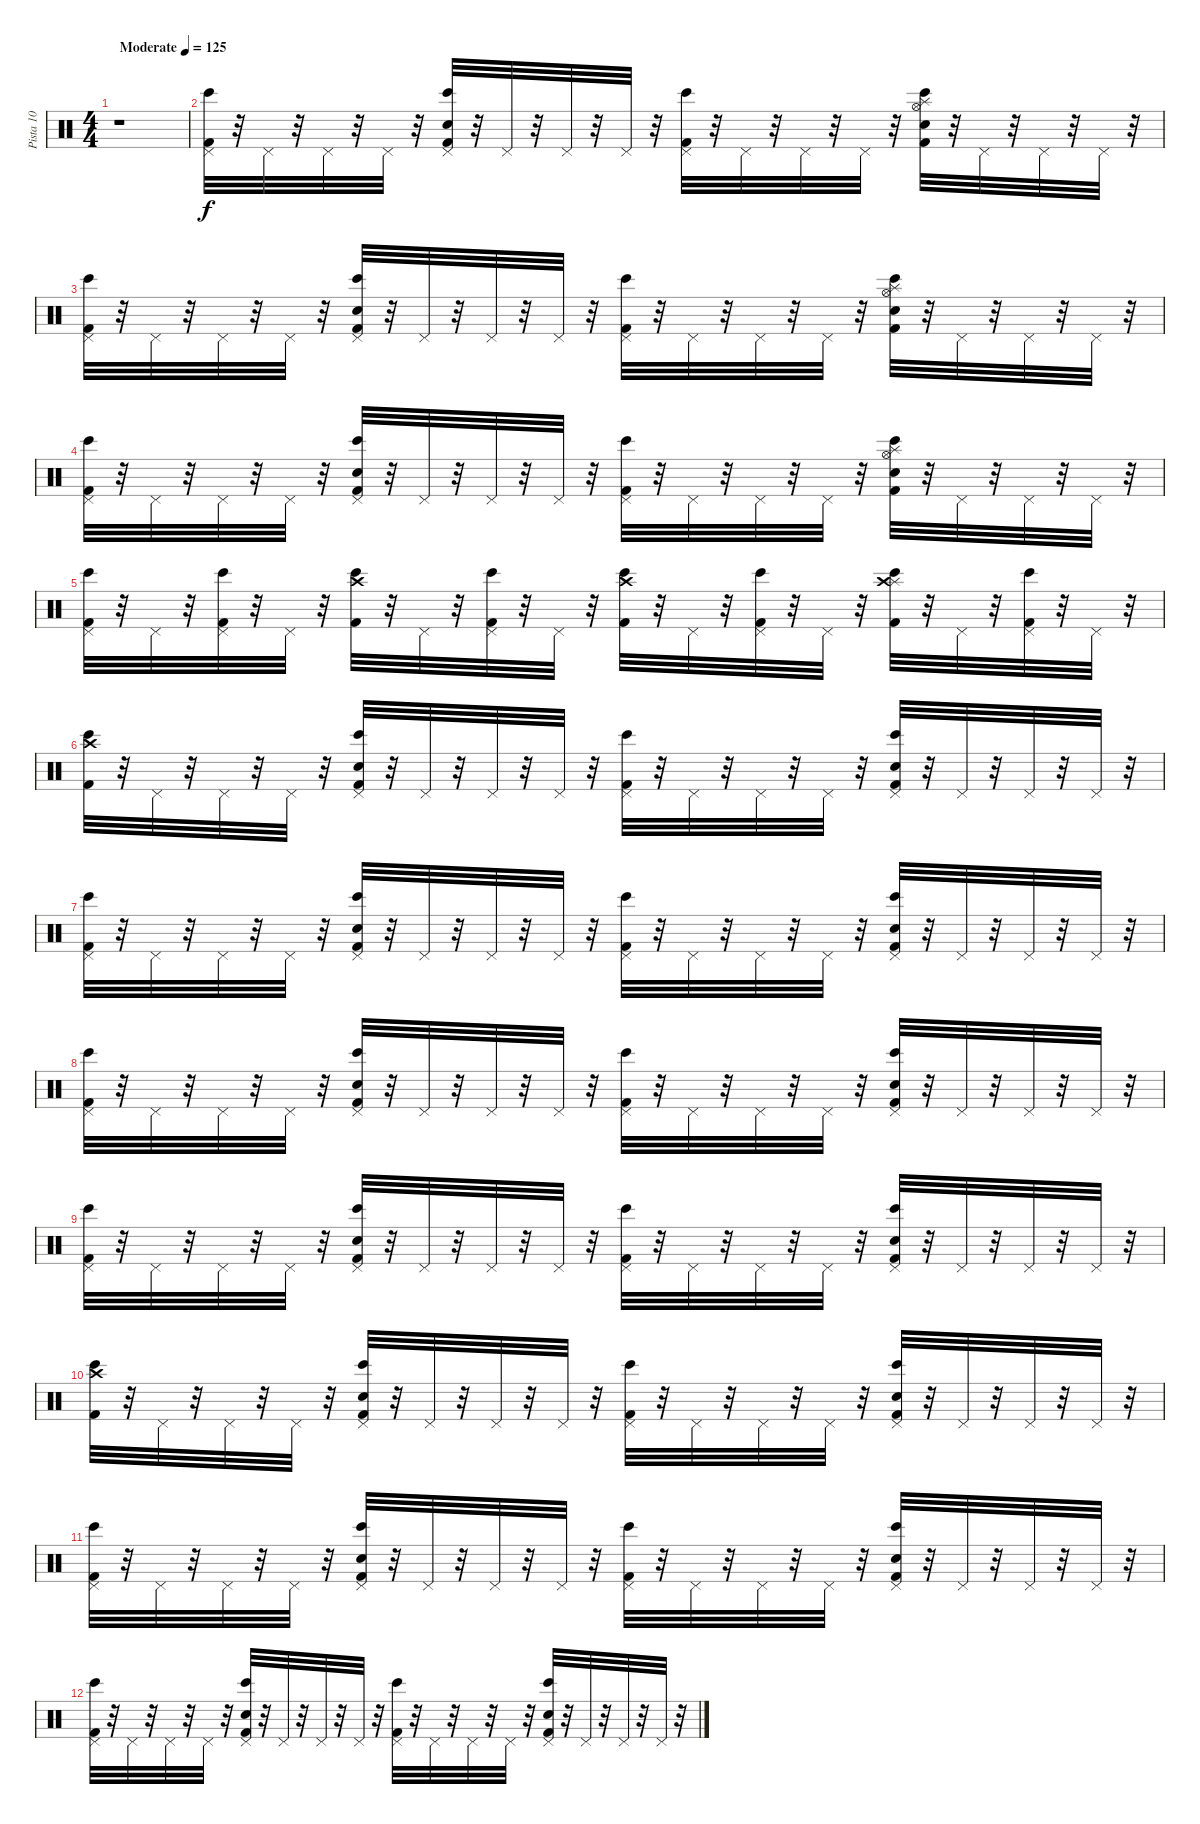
\track ("Pista 10" "Pista 10") {instrument percussion}
\staff {score}
\articulation defaults
\ts (4 4)
\tempo (125 "Moderate")
\clef neutral
\ks c
r.1{dy f} |
("Kick (hit) 2" "Pedal Hi-Hat (hit)" "Bongo High (hit)").32 r.32 "Pedal Hi-Hat (hit)".32 r.32 "Pedal Hi-Hat (hit)".32 r.32 "Pedal Hi-Hat (hit)".32 r.32 ("Snare (hit) 2" "Kick (hit) 2" "Pedal Hi-Hat (hit)" "Bongo High (hit)").32 r.32 "Pedal Hi-Hat (hit)".32 r.32 "Pedal Hi-Hat (hit)".32 r.32 "Pedal Hi-Hat (hit)".32 r.32 ("Kick (hit) 2" "Bongo High (hit)" "Pedal Hi-Hat (hit)").32 r.32 "Pedal Hi-Hat (hit)".32 r.32 "Pedal Hi-Hat (hit)".32 r.32 "Pedal Hi-Hat (hit)".32 r.32 ("Snare (hit) 2" "Splash (hit)" "Hi-Hat (open)" "Kick (hit) 2" "Bongo High (hit)").32 r.32 "Pedal Hi-Hat (hit)".32 r.32 "Pedal Hi-Hat (hit)".32 r.32 "Pedal Hi-Hat (hit)".32 r.32 |
("Kick (hit) 2" "Pedal Hi-Hat (hit)" "Bongo High (hit)").32 r.32 "Pedal Hi-Hat (hit)".32 r.32 "Pedal Hi-Hat (hit)".32 r.32 "Pedal Hi-Hat (hit)".32 r.32 ("Snare (hit) 2" "Kick (hit) 2" "Pedal Hi-Hat (hit)" "Bongo High (hit)").32 r.32 "Pedal Hi-Hat (hit)".32 r.32 "Pedal Hi-Hat (hit)".32 r.32 "Pedal Hi-Hat (hit)".32 r.32 ("Kick (hit) 2" "Bongo High (hit)" "Pedal Hi-Hat (hit)").32 r.32 "Pedal Hi-Hat (hit)".32 r.32 "Pedal Hi-Hat (hit)".32 r.32 "Pedal Hi-Hat (hit)".32 r.32 ("Snare (hit) 2" "Splash (hit)" "Hi-Hat (open)" "Kick (hit) 2" "Bongo High (hit)").32 r.32 "Pedal Hi-Hat (hit)".32 r.32 "Pedal Hi-Hat (hit)".32 r.32 "Pedal Hi-Hat (hit)".32 r.32 |
("Kick (hit) 2" "Pedal Hi-Hat (hit)" "Bongo High (hit)").32 r.32 "Pedal Hi-Hat (hit)".32 r.32 "Pedal Hi-Hat (hit)".32 r.32 "Pedal Hi-Hat (hit)".32 r.32 ("Kick (hit) 2" "Pedal Hi-Hat (hit)" "Bongo High (hit)" "Snare (hit) 2").32 r.32 "Pedal Hi-Hat (hit)".32 r.32 "Pedal Hi-Hat (hit)".32 r.32 "Pedal Hi-Hat (hit)".32 r.32 ("Kick (hit) 2" "Bongo High (hit)" "Pedal Hi-Hat (hit)").32 r.32 "Pedal Hi-Hat (hit)".32 r.32 "Pedal Hi-Hat (hit)".32 r.32 "Pedal Hi-Hat (hit)".32 r.32 ("Snare (hit) 2" "Splash (hit)" "Hi-Hat (open)" "Kick (hit) 2" "Bongo High (hit)").32 r.32 "Pedal Hi-Hat (hit)".32 r.32 "Pedal Hi-Hat (hit)".32 r.32 "Pedal Hi-Hat (hit)".32 r.32 |
("Kick (hit) 2" "Pedal Hi-Hat (hit)" "Bongo High (hit)").32 r.32 "Pedal Hi-Hat (hit)".32 r.32 ("Pedal Hi-Hat (hit)" "Bongo High (hit)" "Kick (hit) 2").32 r.32 "Pedal Hi-Hat (hit)".32 r.32 ("Kick (hit) 2" "Crash high (hit)" "Bongo High (hit)").32 r.32 "Pedal Hi-Hat (hit)".32 r.32 ("Bongo High (hit)" "Kick (hit) 2" "Pedal Hi-Hat (hit)").32 r.32 "Pedal Hi-Hat (hit)".32 r.32 ("Bongo High (hit)" "Kick (hit) 2" "Crash high (hit)").32 r.32 "Pedal Hi-Hat (hit)".32 r.32 ("Pedal Hi-Hat (hit)" "Bongo High (hit)" "Kick (hit) 2").32 r.32 "Pedal Hi-Hat (hit)".32 r.32 ("Splash (hit)" "Kick (hit) 2" "Bongo High (hit)" "Crash high (hit)").32 r.32 "Pedal Hi-Hat (hit)".32 r.32 ("Kick (hit) 2" "Pedal Hi-Hat (hit)" "Bongo High (hit)").32 r.32 "Pedal Hi-Hat (hit)".32 r.32 |
("Crash high (hit)" "Kick (hit) 2" "Bongo High (hit)").32 r.32 "Pedal Hi-Hat (hit)".32 r.32 "Pedal Hi-Hat (hit)".32 r.32 "Pedal Hi-Hat (hit)".32 r.32 ("Snare (hit) 2" "Kick (hit) 2" "Pedal Hi-Hat (hit)" "Bongo High (hit)").32 r.32 "Pedal Hi-Hat (hit)".32 r.32 "Pedal Hi-Hat (hit)".32 r.32 "Pedal Hi-Hat (hit)".32 r.32 ("Kick (hit) 2" "Bongo High (hit)" "Pedal Hi-Hat (hit)").32 r.32 "Pedal Hi-Hat (hit)".32 r.32 "Pedal Hi-Hat (hit)".32 r.32 "Pedal Hi-Hat (hit)".32 r.32 ("Snare (hit) 2" "Pedal Hi-Hat (hit)" "Kick (hit) 2" "Bongo High (hit)").32 r.32 "Pedal Hi-Hat (hit)".32 r.32 "Pedal Hi-Hat (hit)".32 r.32 "Pedal Hi-Hat (hit)".32 r.32 |
("Kick (hit) 2" "Pedal Hi-Hat (hit)" "Bongo High (hit)").32 r.32 "Pedal Hi-Hat (hit)".32 r.32 "Pedal Hi-Hat (hit)".32 r.32 "Pedal Hi-Hat (hit)".32 r.32 ("Snare (hit) 2" "Kick (hit) 2" "Pedal Hi-Hat (hit)" "Bongo High (hit)").32 r.32 "Pedal Hi-Hat (hit)".32 r.32 "Pedal Hi-Hat (hit)".32 r.32 "Pedal Hi-Hat (hit)".32 r.32 ("Kick (hit) 2" "Bongo High (hit)" "Pedal Hi-Hat (hit)").32 r.32 "Pedal Hi-Hat (hit)".32 r.32 "Pedal Hi-Hat (hit)".32 r.32 "Pedal Hi-Hat (hit)".32 r.32 ("Snare (hit) 2" "Pedal Hi-Hat (hit)" "Kick (hit) 2" "Bongo High (hit)").32 r.32 "Pedal Hi-Hat (hit)".32 r.32 "Pedal Hi-Hat (hit)".32 r.32 "Pedal Hi-Hat (hit)".32 r.32 |
("Kick (hit) 2" "Pedal Hi-Hat (hit)" "Bongo High (hit)").32 r.32 "Pedal Hi-Hat (hit)".32 r.32 "Pedal Hi-Hat (hit)".32 r.32 "Pedal Hi-Hat (hit)".32 r.32 ("Snare (hit) 2" "Kick (hit) 2" "Pedal Hi-Hat (hit)" "Bongo High (hit)").32 r.32 "Pedal Hi-Hat (hit)".32 r.32 "Pedal Hi-Hat (hit)".32 r.32 "Pedal Hi-Hat (hit)".32 r.32 ("Kick (hit) 2" "Bongo High (hit)" "Pedal Hi-Hat (hit)").32 r.32 "Pedal Hi-Hat (hit)".32 r.32 "Pedal Hi-Hat (hit)".32 r.32 "Pedal Hi-Hat (hit)".32 r.32 ("Snare (hit) 2" "Pedal Hi-Hat (hit)" "Kick (hit) 2" "Bongo High (hit)").32 r.32 "Pedal Hi-Hat (hit)".32 r.32 "Pedal Hi-Hat (hit)".32 r.32 "Pedal Hi-Hat (hit)".32 r.32 |
("Kick (hit) 2" "Pedal Hi-Hat (hit)" "Bongo High (hit)").32 r.32 "Pedal Hi-Hat (hit)".32 r.32 "Pedal Hi-Hat (hit)".32 r.32 "Pedal Hi-Hat (hit)".32 r.32 ("Snare (hit) 2" "Kick (hit) 2" "Pedal Hi-Hat (hit)" "Bongo High (hit)").32 r.32 "Pedal Hi-Hat (hit)".32 r.32 "Pedal Hi-Hat (hit)".32 r.32 "Pedal Hi-Hat (hit)".32 r.32 ("Kick (hit) 2" "Bongo High (hit)" "Pedal Hi-Hat (hit)").32 r.32 "Pedal Hi-Hat (hit)".32 r.32 "Pedal Hi-Hat (hit)".32 r.32 "Pedal Hi-Hat (hit)".32 r.32 ("Snare (hit) 2" "Pedal Hi-Hat (hit)" "Kick (hit) 2" "Bongo High (hit)").32 r.32 "Pedal Hi-Hat (hit)".32 r.32 "Pedal Hi-Hat (hit)".32 r.32 "Pedal Hi-Hat (hit)".32 r.32 |
("Crash high (hit)" "Kick (hit) 2" "Bongo High (hit)").32 r.32 "Pedal Hi-Hat (hit)".32 r.32 "Pedal Hi-Hat (hit)".32 r.32 "Pedal Hi-Hat (hit)".32 r.32 ("Snare (hit) 2" "Kick (hit) 2" "Pedal Hi-Hat (hit)" "Bongo High (hit)").32 r.32 "Pedal Hi-Hat (hit)".32 r.32 "Pedal Hi-Hat (hit)".32 r.32 "Pedal Hi-Hat (hit)".32 r.32 ("Kick (hit) 2" "Bongo High (hit)" "Pedal Hi-Hat (hit)").32 r.32 "Pedal Hi-Hat (hit)".32 r.32 "Pedal Hi-Hat (hit)".32 r.32 "Pedal Hi-Hat (hit)".32 r.32 ("Snare (hit) 2" "Pedal Hi-Hat (hit)" "Kick (hit) 2" "Bongo High (hit)").32 r.32 "Pedal Hi-Hat (hit)".32 r.32 "Pedal Hi-Hat (hit)".32 r.32 "Pedal Hi-Hat (hit)".32 r.32 |
("Kick (hit) 2" "Pedal Hi-Hat (hit)" "Bongo High (hit)").32 r.32 "Pedal Hi-Hat (hit)".32 r.32 "Pedal Hi-Hat (hit)".32 r.32 "Pedal Hi-Hat (hit)".32 r.32 ("Snare (hit) 2" "Kick (hit) 2" "Pedal Hi-Hat (hit)" "Bongo High (hit)").32 r.32 "Pedal Hi-Hat (hit)".32 r.32 "Pedal Hi-Hat (hit)".32 r.32 "Pedal Hi-Hat (hit)".32 r.32 ("Kick (hit) 2" "Bongo High (hit)" "Pedal Hi-Hat (hit)").32 r.32 "Pedal Hi-Hat (hit)".32 r.32 "Pedal Hi-Hat (hit)".32 r.32 "Pedal Hi-Hat (hit)".32 r.32 ("Snare (hit) 2" "Pedal Hi-Hat (hit)" "Kick (hit) 2" "Bongo High (hit)").32 r.32 "Pedal Hi-Hat (hit)".32 r.32 "Pedal Hi-Hat (hit)".32 r.32 "Pedal Hi-Hat (hit)".32 r.32 |
("Kick (hit) 2" "Pedal Hi-Hat (hit)" "Bongo High (hit)").32 r.32 "Pedal Hi-Hat (hit)".32 r.32 "Pedal Hi-Hat (hit)".32 r.32 "Pedal Hi-Hat (hit)".32 r.32 ("Snare (hit) 2" "Kick (hit) 2" "Pedal Hi-Hat (hit)" "Bongo High (hit)").32 r.32 "Pedal Hi-Hat (hit)".32 r.32 "Pedal Hi-Hat (hit)".32 r.32 "Pedal Hi-Hat (hit)".32 r.32 ("Kick (hit) 2" "Bongo High (hit)" "Pedal Hi-Hat (hit)").32 r.32 "Pedal Hi-Hat (hit)".32 r.32 "Pedal Hi-Hat (hit)".32 r.32 "Pedal Hi-Hat (hit)".32 r.32 ("Snare (hit) 2" "Pedal Hi-Hat (hit)" "Kick (hit) 2" "Bongo High (hit)").32 r.32 "Pedal Hi-Hat (hit)".32 r.32 "Pedal Hi-Hat (hit)".32 r.32 "Pedal Hi-Hat (hit)".32 r.32
